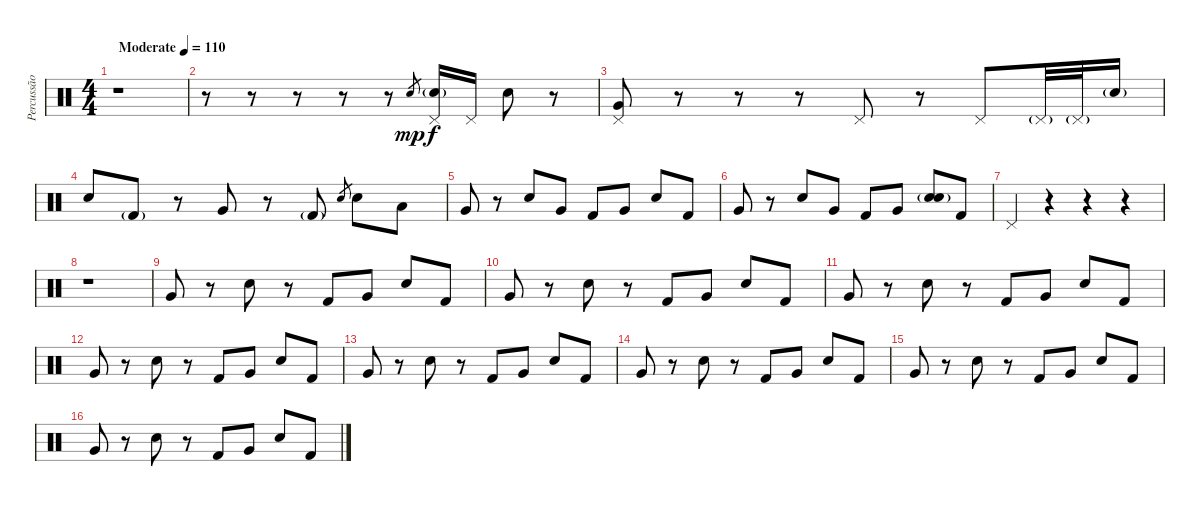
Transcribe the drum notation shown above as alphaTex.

\track ("Percussão" "Percussão") {instrument percussion}
\staff {score}
\articulation defaults
\ts (4 4)
\tempo (110 "Moderate")
\clef neutral
\ks c
r.1{dy mp} |
r.8 r.8 r.8 r.8 r.8 "Electric Snare (hit)".8{gr} ("Pedal Hi-Hat (hit)" "Electric Snare (hit)"{g}).16{dy f} "Pedal Hi-Hat (hit)".16 "Electric Snare (hit)".8 r.8 |
("Pedal Hi-Hat (hit)" "Very Low Tom (hit)").8 r.8 r.8 r.8 "Pedal Hi-Hat (hit)".8 r.8 "Pedal Hi-Hat (hit)".8 "Pedal Hi-Hat (hit)"{g}.32 "Pedal Hi-Hat (hit)"{g}.32 "Electric Snare (hit)"{g}.16 |
"Electric Snare (hit)".8 "Kick (hit) 2"{g}.8 r.8 "Very Low Tom (hit)".8 r.8 "Kick (hit) 2"{g}.8 "Electric Snare (hit)".8{gr} "Electric Snare (hit)".8 "Low Floor Tom (hit)".8 |
"Very Low Tom (hit)".8 r.8 "Electric Snare (hit)".8 "Very Low Tom (hit)".8 "Kick (hit) 2".8 "Very Low Tom (hit)".8 "Electric Snare (hit)".8 "Kick (hit) 2".8 |
"Very Low Tom (hit)".8 r.8 "Electric Snare (hit)".8 "Very Low Tom (hit)".8 "Kick (hit) 2".8 "Very Low Tom (hit)".8 ("Electric Snare (hit)"{g} "Snare (hit) 2").8 "Kick (hit) 2".8 |
"Pedal Hi-Hat (hit)".4 r.4 r.4 r.4 |
r.1 |
"Very Low Tom (hit)".8 r.8 "Electric Snare (hit)".8 r.8 "Kick (hit) 2".8 "Very Low Tom (hit)".8 "Electric Snare (hit)".8 "Kick (hit) 2".8 |
"Very Low Tom (hit)".8 r.8 "Electric Snare (hit)".8 r.8 "Kick (hit) 2".8 "Very Low Tom (hit)".8 "Electric Snare (hit)".8 "Kick (hit) 2".8 |
"Very Low Tom (hit)".8 r.8 "Electric Snare (hit)".8 r.8 "Kick (hit) 2".8 "Very Low Tom (hit)".8 "Electric Snare (hit)".8 "Kick (hit) 2".8 |
"Very Low Tom (hit)".8 r.8 "Electric Snare (hit)".8 r.8 "Kick (hit) 2".8 "Very Low Tom (hit)".8 "Electric Snare (hit)".8 "Kick (hit) 2".8 |
"Very Low Tom (hit)".8 r.8 "Electric Snare (hit)".8 r.8 "Kick (hit) 2".8 "Very Low Tom (hit)".8 "Electric Snare (hit)".8 "Kick (hit) 2".8 |
"Very Low Tom (hit)".8 r.8 "Electric Snare (hit)".8 r.8 "Kick (hit) 2".8 "Very Low Tom (hit)".8 "Electric Snare (hit)".8 "Kick (hit) 2".8 |
"Very Low Tom (hit)".8 r.8 "Electric Snare (hit)".8 r.8 "Kick (hit) 2".8 "Very Low Tom (hit)".8 "Electric Snare (hit)".8 "Kick (hit) 2".8 |
"Very Low Tom (hit)".8 r.8 "Electric Snare (hit)".8 r.8 "Kick (hit) 2".8 "Very Low Tom (hit)".8 "Electric Snare (hit)".8 "Kick (hit) 2".8
